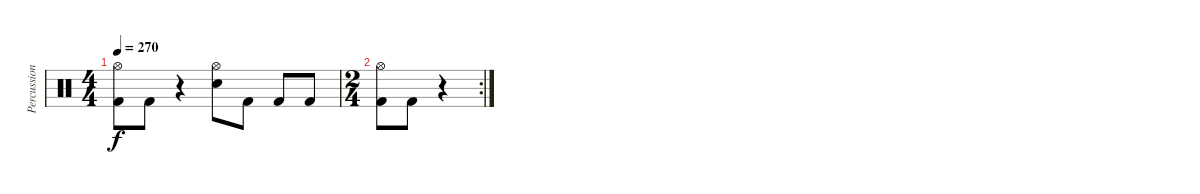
\track ("Percussion" "Percussion") {instrument percussion}
\staff {score}
\articulation defaults
\ts (4 4)
\tempo 270
\clef neutral
\ks c
("Hi-Hat (open)" "Kick (hit) 2").8{dy f} "Kick (hit) 2".8 r.4 ("Hi-Hat (open)" "Electric Snare (hit)").8 "Kick (hit) 2".8 "Kick (hit) 2".8 "Kick (hit) 2".8 |
\rc 2
\ts (2 4)
("Hi-Hat (open)" "Kick (hit) 2").8 "Kick (hit) 2".8 r.4
